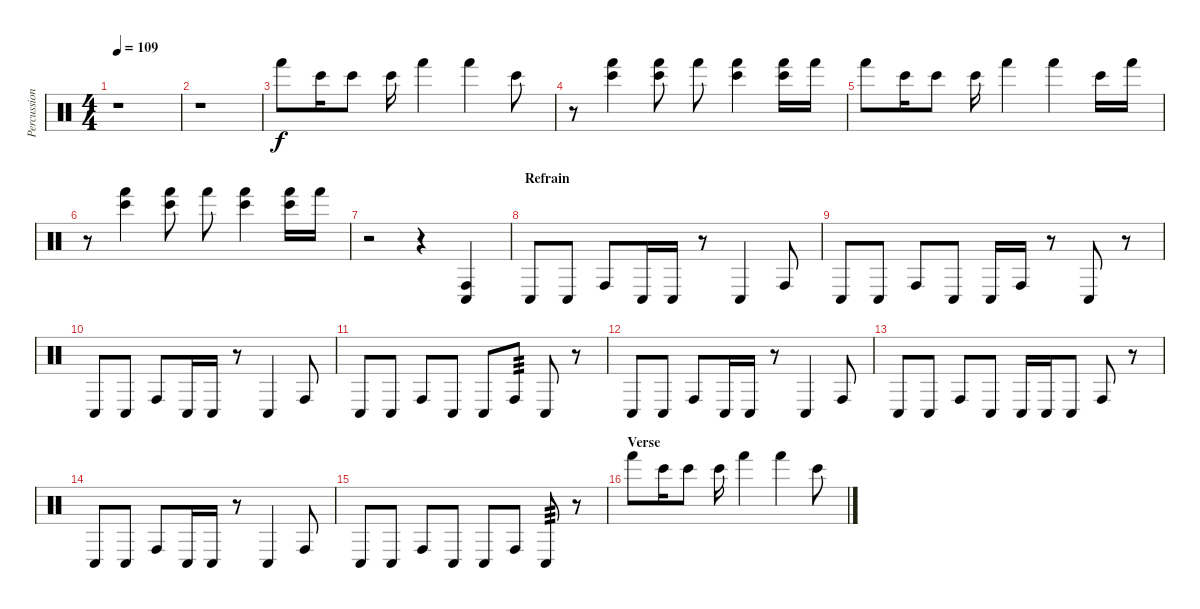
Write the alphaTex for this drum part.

\track ("Percussions" "Percussion") {instrument percussion}
\staff {score}
\articulation defaults
\ts (4 4)
\tempo 109
\clef neutral
\ks c
r.1{dy f} |
r.1 |
"Hand (hit)".8 "Bongo High (hit)".16 "Bongo High (hit)".8 "Bongo High (hit)".16 "Hand (hit)".4 "Hand (hit)".4 "Bongo High (hit)".8 |
r.8 ("Bongo High (hit)" "Hand (hit)").4 ("Bongo High (hit)" "Hand (hit)").8 "Hand (hit)".8 ("Bongo High (hit)" "Hand (hit)").4 ("Bongo High (hit)" "Hand (hit)").16 "Hand (hit)".16 |
"Hand (hit)".8 "Bongo High (hit)".16 "Bongo High (hit)".8 "Bongo High (hit)".16 "Hand (hit)".4 "Hand (hit)".4 "Bongo High (hit)".16 "Hand (hit)".16 |
r.8 ("Bongo High (hit)" "Hand (hit)").4 ("Bongo High (hit)" "Hand (hit)").8 "Hand (hit)".8 ("Bongo High (hit)" "Hand (hit)").4 ("Bongo High (hit)" "Hand (hit)").16 "Hand (hit)".16 |
r.2 r.4 ("Conga high (hit)" "Conga low (hit)").4 |
\section ("" "Refrain")
"Conga low (hit)".8 "Conga low (hit)".8 "Conga high (hit)".8 "Conga low (hit)".16 "Conga low (hit)".16 r.8 "Conga low (hit)".4 "Conga high (hit)".8 |
"Conga low (hit)".8 "Conga low (hit)".8 "Conga high (hit)".8 "Conga low (hit)".8 "Conga low (hit)".16 "Conga high (hit)".16 r.8 "Conga low (hit)".8 r.8 |
"Conga low (hit)".8 "Conga low (hit)".8 "Conga high (hit)".8 "Conga low (hit)".16 "Conga low (hit)".16 r.8 "Conga low (hit)".4 "Conga high (hit)".8 |
"Conga low (hit)".8 "Conga low (hit)".8 "Conga high (hit)".8 "Conga low (hit)".8 "Conga low (hit)".8 "Conga high (hit)".8{tp 3} "Conga low (hit)".8 r.8 |
"Conga low (hit)".8 "Conga low (hit)".8 "Conga high (hit)".8 "Conga low (hit)".16 "Conga low (hit)".16 r.8 "Conga low (hit)".4 "Conga high (hit)".8 |
"Conga low (hit)".8 "Conga low (hit)".8 "Conga high (hit)".8 "Conga low (hit)".8 "Conga low (hit)".16 "Conga low (hit)".16 "Conga low (hit)".8 "Conga high (hit)".8 r.8 |
"Conga low (hit)".8 "Conga low (hit)".8 "Conga high (hit)".8 "Conga low (hit)".16 "Conga low (hit)".16 r.8 "Conga low (hit)".4 "Conga high (hit)".8 |
"Conga low (hit)".8 "Conga low (hit)".8 "Conga high (hit)".8 "Conga low (hit)".8 "Conga low (hit)".8 "Conga high (hit)".8 "Conga low (hit)".8{tp 3} r.8 |
\section ("" "Verse")
"Hand (hit)".8 "Bongo High (hit)".16 "Bongo High (hit)".8 "Bongo High (hit)".16 "Hand (hit)".4 "Hand (hit)".4 "Bongo High (hit)".8
